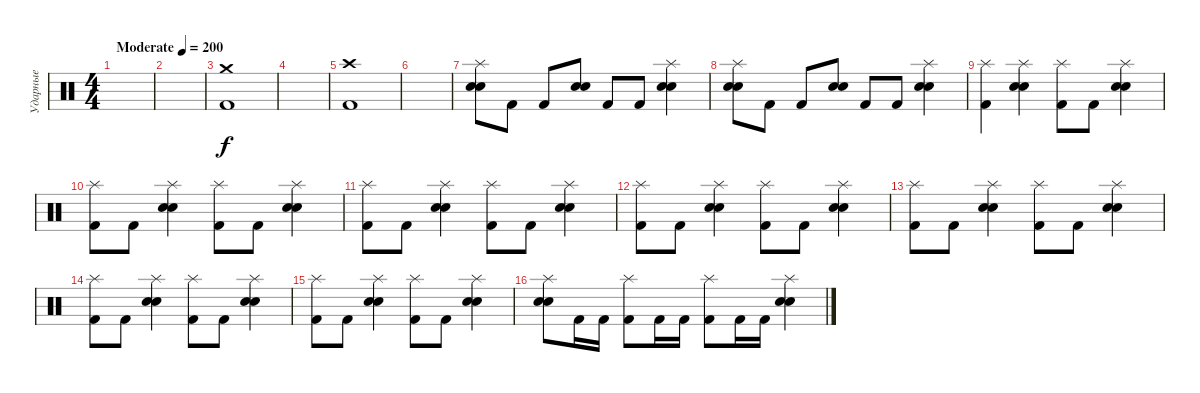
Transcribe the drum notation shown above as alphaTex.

\track ("Ударные" "Ударные") {instrument percussion}
\staff {score}
\articulation defaults
\ts (4 4)
\tempo (200 "Moderate")
\clef neutral
\ks c
|
|
("Crash medium (hit)" "Kick (hit) 2").1 |
|
("Crash high (hit)" "Kick (hit) 2").1 |
|
("Splash (hit)" "Electric Snare (hit)" "Snare (hit) 2").8 "Kick (hit) 2".8 "Kick (hit) 2".8 ("Electric Snare (hit)" "Snare (hit) 2").8 "Kick (hit) 2".8 "Kick (hit) 2".8 ("Splash (hit)" "Electric Snare (hit)" "Snare (hit) 2").4 |
("Splash (hit)" "Electric Snare (hit)" "Snare (hit) 2").8 "Kick (hit) 2".8 "Kick (hit) 2".8 ("Electric Snare (hit)" "Snare (hit) 2").8 "Kick (hit) 2".8 "Kick (hit) 2".8 ("Splash (hit)" "Electric Snare (hit)" "Snare (hit) 2").4 |
("Splash (hit)" "Kick (hit) 2").4 ("Splash (hit)" "Electric Snare (hit)" "Snare (hit) 2").4 ("Splash (hit)" "Kick (hit) 2").8 "Kick (hit) 2".8 ("Splash (hit)" "Electric Snare (hit)" "Snare (hit) 2").4 |
("Splash (hit)" "Kick (hit) 2").8 "Kick (hit) 2".8 ("Splash (hit)" "Electric Snare (hit)" "Snare (hit) 2").4 ("Splash (hit)" "Kick (hit) 2").8 "Kick (hit) 2".8 ("Splash (hit)" "Electric Snare (hit)" "Snare (hit) 2").4 |
("Splash (hit)" "Kick (hit) 2").8 "Kick (hit) 2".8 ("Splash (hit)" "Electric Snare (hit)" "Snare (hit) 2").4 ("Splash (hit)" "Kick (hit) 2").8 "Kick (hit) 2".8 ("Splash (hit)" "Electric Snare (hit)" "Snare (hit) 2").4 |
("Splash (hit)" "Kick (hit) 2").8 "Kick (hit) 2".8 ("Splash (hit)" "Electric Snare (hit)" "Snare (hit) 2").4 ("Splash (hit)" "Kick (hit) 2").8 "Kick (hit) 2".8 ("Splash (hit)" "Electric Snare (hit)" "Snare (hit) 2").4 |
("Splash (hit)" "Kick (hit) 2").8 "Kick (hit) 2".8 ("Splash (hit)" "Electric Snare (hit)" "Snare (hit) 2").4 ("Splash (hit)" "Kick (hit) 2").8 "Kick (hit) 2".8 ("Splash (hit)" "Electric Snare (hit)" "Snare (hit) 2").4 |
("Splash (hit)" "Kick (hit) 2").8 "Kick (hit) 2".8 ("Splash (hit)" "Electric Snare (hit)" "Snare (hit) 2").4 ("Splash (hit)" "Kick (hit) 2").8 "Kick (hit) 2".8 ("Splash (hit)" "Electric Snare (hit)" "Snare (hit) 2").4 |
("Splash (hit)" "Kick (hit) 2").8 "Kick (hit) 2".8 ("Splash (hit)" "Electric Snare (hit)" "Snare (hit) 2").4 ("Splash (hit)" "Kick (hit) 2").8 "Kick (hit) 2".8 ("Splash (hit)" "Electric Snare (hit)" "Snare (hit) 2").4 |
("Splash (hit)" "Electric Snare (hit)" "Snare (hit) 2").8 "Kick (hit) 2".16 "Kick (hit) 2".16 ("Splash (hit)" "Kick (hit) 2").8 "Kick (hit) 2".16 "Kick (hit) 2".16 ("Splash (hit)" "Kick (hit) 2").8 "Kick (hit) 2".16 "Kick (hit) 2".16 ("Splash (hit)" "Electric Snare (hit)" "Snare (hit) 2").4
